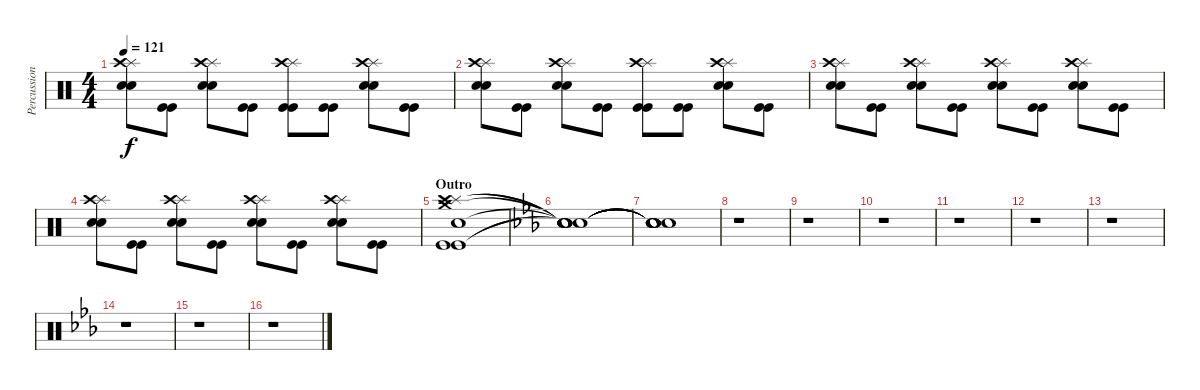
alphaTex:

\track ("Percussions" "Percussion") {instrument percussion}
\staff {score}
\articulation defaults
\ts (4 4)
\tempo 121
\clef neutral
\ks c
("Splash (hit)" "Crash high (hit)" "Electric Snare (hit)" "Electric Snare (hit)").8{dy f} ("Kick (hit)" "Kick (hit)").8 ("Splash (hit)" "Crash high (hit)" "Electric Snare (hit)" "Electric Snare (hit)").8 ("Kick (hit)" "Kick (hit)").8 ("Splash (hit)" "Crash high (hit)" "Kick (hit)" "Kick (hit)").8 ("Kick (hit)" "Kick (hit)").8 ("Splash (hit)" "Crash high (hit)" "Electric Snare (hit)" "Electric Snare (hit)").8 ("Kick (hit)" "Kick (hit)").8 |
("Splash (hit)" "Crash high (hit)" "Electric Snare (hit)" "Electric Snare (hit)").8 ("Kick (hit)" "Kick (hit)").8 ("Splash (hit)" "Crash high (hit)" "Electric Snare (hit)" "Electric Snare (hit)").8 ("Kick (hit)" "Kick (hit)").8 ("Splash (hit)" "Crash high (hit)" "Kick (hit)" "Kick (hit)").8 ("Kick (hit)" "Kick (hit)").8 ("Splash (hit)" "Crash high (hit)" "Electric Snare (hit)" "Electric Snare (hit)").8 ("Kick (hit)" "Kick (hit)").8 |
("Splash (hit)" "Crash high (hit)" "Electric Snare (hit)" "Electric Snare (hit)").8 ("Kick (hit)" "Kick (hit)").8 ("Splash (hit)" "Crash high (hit)" "Electric Snare (hit)" "Electric Snare (hit)").8 ("Kick (hit)" "Kick (hit)").8 ("Splash (hit)" "Crash high (hit)" "Electric Snare (hit)" "Electric Snare (hit)").8 ("Kick (hit)" "Kick (hit)").8 ("Splash (hit)" "Crash high (hit)" "Electric Snare (hit)" "Electric Snare (hit)").8 ("Kick (hit)" "Kick (hit)").8 |
("Splash (hit)" "Crash high (hit)" "Electric Snare (hit)" "Electric Snare (hit)").8 ("Kick (hit)" "Kick (hit)").8 ("Splash (hit)" "Crash high (hit)" "Electric Snare (hit)" "Electric Snare (hit)").8 ("Kick (hit)" "Kick (hit)").8 ("Splash (hit)" "Crash high (hit)" "Electric Snare (hit)" "Electric Snare (hit)").8 ("Kick (hit)" "Kick (hit)").8 ("Splash (hit)" "Crash high (hit)" "Electric Snare (hit)" "Electric Snare (hit)").8 ("Kick (hit)" "Kick (hit)").8 |
\section ("" "Outro")
("Splash (hit)" "Crash medium (hit)" "Crash high (hit)" "Electric Snare (hit)" "Kick (hit)" "Kick (hit)").1 |
\ks eb
("Snare (hit)"{t} "Snare (hit)"{t} "Snare (hit)"{t} "Snare (hit)"{t} "Snare (hit)"{t} "Snare (hit)"{t}).1 |
("Snare (hit)"{t} "Snare (hit)"{t} "Snare (hit)"{t} "Snare (hit)"{t} "Snare (hit)"{t} "Snare (hit)"{t}).1 |
r.1 |
r.1 |
r.1 |
r.1 |
r.1 |
r.1 |
r.1 |
r.1 |
r.1
